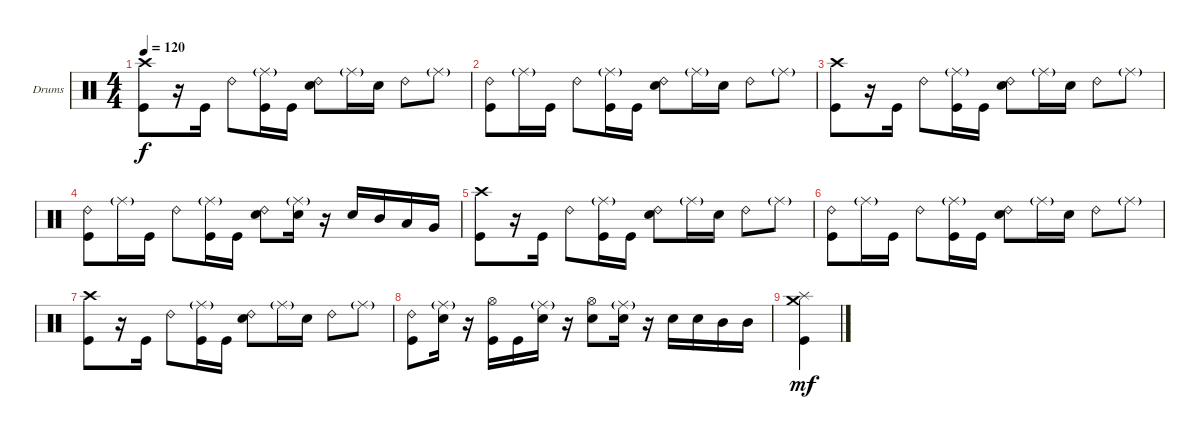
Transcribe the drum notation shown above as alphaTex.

\bracketExtendMode groupsimilarinstruments
\firstSystemTrackNameOrientation horizontal
\otherSystemsTrackNameOrientation horizontal
\track ("Drumkit" "Drums") {instrument percussion}
\staff {score}
\articulation defaults
\ts (4 4)
\tempo 120
\clef neutral
\ks c
("Crash high (hit)" "Kick (hit)").8{dy f} r.16 "Kick (hit)".16 "Ride (bell) 2".8 ("Kick (hit)" "Ride (middle)"{g}).16 "Kick (hit)".16 ("Ride (bell) 2" "Snare (hit) 2").8 "Ride (middle)"{g}.16 "Snare (hit) 2".16 "Ride (bell) 2".8 "Ride (middle)"{g}.8 |
("Kick (hit)" "Ride (bell) 2").8 "Ride (middle)"{g}.16 "Kick (hit)".16 "Ride (bell) 2".8 ("Kick (hit)" "Ride (middle)"{g}).16 "Kick (hit)".16 ("Ride (bell) 2" "Snare (hit) 2").8 "Ride (middle)"{g}.16 "Snare (hit) 2".16 "Ride (bell) 2".8 "Ride (middle)"{g}.8 |
("Crash high (hit)" "Kick (hit)").8 r.16 "Kick (hit)".16 "Ride (bell) 2".8 ("Kick (hit)" "Ride (middle)"{g}).16 "Kick (hit)".16 ("Ride (bell) 2" "Snare (hit) 2").8 "Ride (middle)"{g}.16 "Snare (hit) 2".16 "Ride (bell) 2".8 "Ride (middle)"{g}.8 |
("Kick (hit)" "Ride (bell) 2").8 "Ride (middle)"{g}.16 "Kick (hit)".16 "Ride (bell) 2".8 ("Kick (hit)" "Ride (middle)"{g}).16 "Kick (hit)".16 ("Ride (bell) 2" "Snare (hit) 2").8 ("Ride (middle)"{g} "Snare (hit) 2").16 r.16 "Snare (hit) 2".16 "Mid Tom (hit)".16 "Low Tom (hit)".16 "Very Low Tom (hit)".16 |
("Crash high (hit)" "Kick (hit)").8 r.16 "Kick (hit)".16 "Ride (bell) 2".8 ("Kick (hit)" "Ride (middle)"{g}).16 "Kick (hit)".16 ("Ride (bell) 2" "Snare (hit) 2").8 "Ride (middle)"{g}.16 "Snare (hit) 2".16 "Ride (bell) 2".8 "Ride (middle)"{g}.8 |
("Kick (hit)" "Ride (bell) 2").8 "Ride (middle)"{g}.16 "Kick (hit)".16 "Ride (bell) 2".8 ("Kick (hit)" "Ride (middle)"{g}).16 "Kick (hit)".16 ("Ride (bell) 2" "Snare (hit) 2").8 "Ride (middle)"{g}.16 "Snare (hit) 2".16 "Ride (bell) 2".8 "Ride (middle)"{g}.8 |
("Crash high (hit)" "Kick (hit)").8 r.16 "Kick (hit)".16 "Ride (bell) 2".8 ("Kick (hit)" "Ride (middle)"{g}).16 "Kick (hit)".16 ("Ride (bell) 2" "Snare (hit) 2").8 "Ride (middle)"{g}.16 "Snare (hit) 2".16 "Ride (bell) 2".8 "Ride (middle)"{g}.8 |
("Kick (hit)" "Ride (bell) 2").8 ("Ride (middle)"{g} "Snare (hit) 2").16 r.16 ("Kick (hit)" "Hi-Hat (open)").16 "Kick (hit)".16 ("Ride (middle)"{g} "Snare (hit) 2").16 r.16 ("Snare (hit) 2" "Hi-Hat (open)").8 ("Ride (middle)"{g} "Snare (hit) 2").16 r.16 "Snare (hit) 2".16 "Snare (hit) 2".16 "Mid Tom (hit)".16 "Mid Tom (hit)".16 |
("Crash medium (hit)" "Splash (hit)" "Kick (hit)").4{dy mf}
